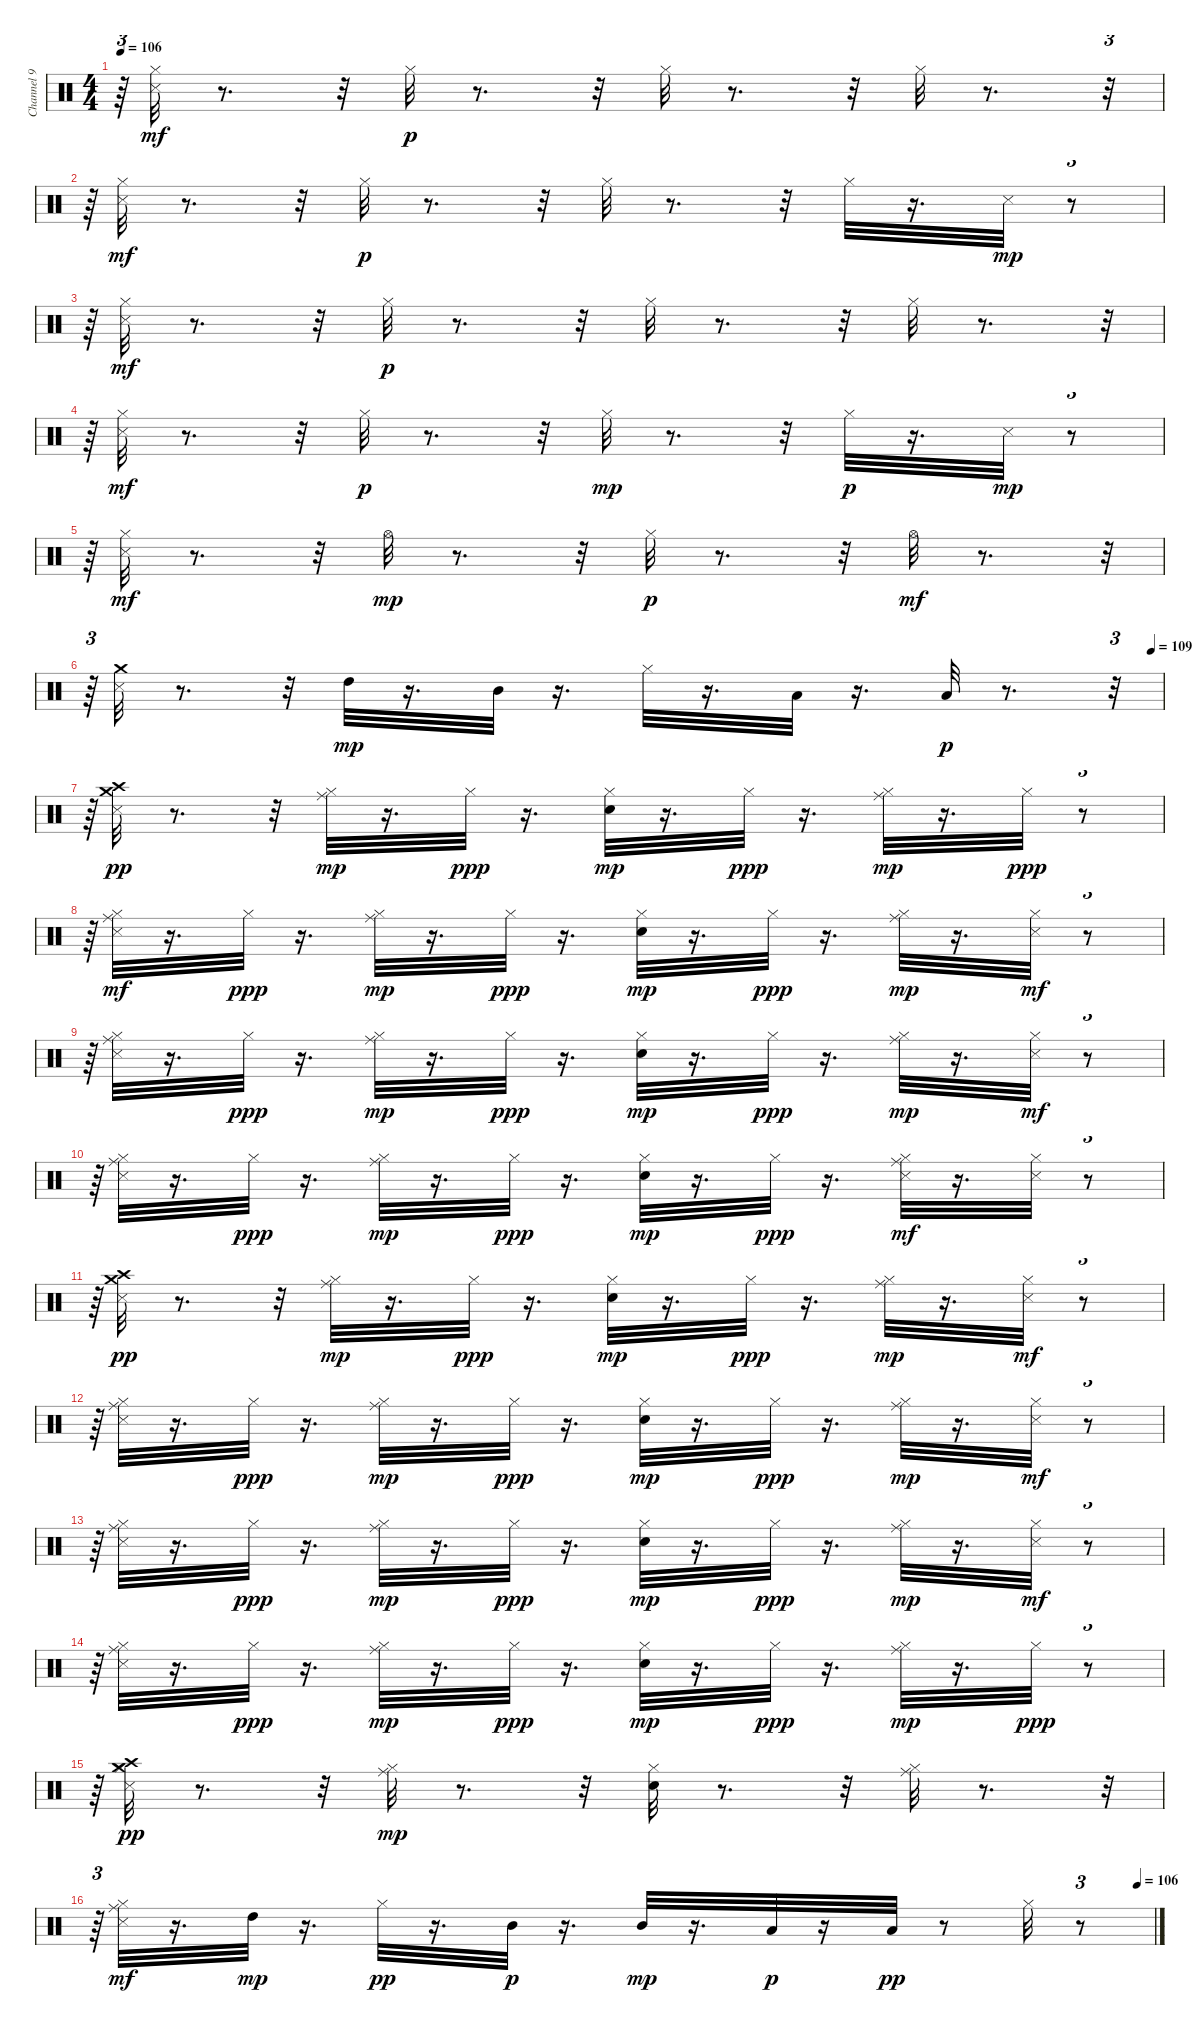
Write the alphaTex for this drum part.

\track ("Channel 9" "Channel 9") {instrument percussion}
\staff {score}
\articulation defaults
\ts (4 4)
\tempo 106
\clef neutral
\ks c
r.64{tu (3 2) dy pp} ("Hi-Hat (closed)" "Metronome (hit)").32{dy mf} r.8{d} r.32 "Hi-Hat (closed)".32{dy p} r.8{d} r.32 "Hi-Hat (closed)".32 r.8{d} r.32 "Hi-Hat (closed)".32 r.8{d} r.32{tu (3 2)} |
r.64{tu (3 2)} ("Hi-Hat (closed)" "Metronome (hit)").32{dy mf} r.8{d} r.32 "Hi-Hat (closed)".32{dy p} r.8{d} r.32 "Hi-Hat (closed)".32 r.8{d} r.32 "Hi-Hat (closed)".32 r.16{d} "Metronome (hit)".32{dy mp} r.8{tu (3 2)} |
r.64{tu (3 2)} ("Hi-Hat (closed)" "Metronome (hit)").32{dy mf} r.8{d} r.32 "Hi-Hat (closed)".32{dy p} r.8{d} r.32 "Hi-Hat (closed)".32 r.8{d} r.32 "Hi-Hat (closed)".32 r.8{d} r.32{tu (3 2)} |
r.64{tu (3 2)} ("Hi-Hat (closed)" "Metronome (hit)").32{dy mf} r.8{d} r.32 "Hi-Hat (closed)".32{dy p} r.8{d} r.32 "Hi-Hat (closed)".32{dy mp} r.8{d} r.32 "Hi-Hat (closed)".32{dy p} r.16{d} "Metronome (hit)".32{dy mp} r.8{tu (3 2)} |
r.64{tu (3 2)} ("Hi-Hat (closed)" "Metronome (hit)").32{dy mf} r.8{d} r.32 "Hi-Hat (open)".32{dy mp} r.8{d} r.32 "Hi-Hat (closed)".32{dy p} r.8{d} r.32 "Hi-Hat (open)".32{dy mf} r.8{d} r.32{tu (3 2)} |
\tempo (109 0.9895833333333334)
r.64{tu (3 2)} ("Crash medium (hit)" "Metronome (hit)").32 r.8{d} r.32 "High Tom (hit)".32{dy mp} r.16{d} "Mid Tom (hit)".32 r.16{d} "Hi-Hat (closed)".32 r.16{d} "Low Tom (hit)".32 r.16{d} "Low Tom (hit)".32{dy p} r.8{d} r.32{tu (3 2)} |
r.64{tu (3 2)} ("Crash medium (hit)" "Metronome (hit)" "Crash high (hit)").32{dy pp} r.8{d} r.32 ("Ride (middle)" "Hi-Hat (closed)").32{dy mp} r.16{d} "Hi-Hat (closed)".32{dy ppp} r.16{d} ("Hi-Hat (closed)" "Electric Snare (hit)").32{dy mp} r.16{d} "Hi-Hat (closed)".32{dy ppp} r.16{d} ("Ride (middle)" "Hi-Hat (closed)").32{dy mp} r.16{d} "Hi-Hat (closed)".32{dy ppp} r.8{tu (3 2)} |
r.64{tu (3 2)} ("Ride (middle)" "Hi-Hat (closed)" "Metronome (hit)").32{dy mf} r.16{d} "Hi-Hat (closed)".32{dy ppp} r.16{d} ("Ride (middle)" "Hi-Hat (closed)").32{dy mp} r.16{d} "Hi-Hat (closed)".32{dy ppp} r.16{d} ("Hi-Hat (closed)" "Electric Snare (hit)").32{dy mp} r.16{d} "Hi-Hat (closed)".32{dy ppp} r.16{d} ("Ride (middle)" "Hi-Hat (closed)").32{dy mp} r.16{d} ("Hi-Hat (closed)" "Metronome (hit)").32{dy mf} r.8{tu (3 2)} |
r.64{tu (3 2)} ("Ride (middle)" "Hi-Hat (closed)" "Metronome (hit)").32 r.16{d} "Hi-Hat (closed)".32{dy ppp} r.16{d} ("Ride (middle)" "Hi-Hat (closed)").32{dy mp} r.16{d} "Hi-Hat (closed)".32{dy ppp} r.16{d} ("Hi-Hat (closed)" "Electric Snare (hit)").32{dy mp} r.16{d} "Hi-Hat (closed)".32{dy ppp} r.16{d} ("Ride (middle)" "Hi-Hat (closed)").32{dy mp} r.16{d} ("Hi-Hat (closed)" "Metronome (hit)").32{dy mf} r.8{tu (3 2)} |
r.64{tu (3 2)} ("Ride (middle)" "Hi-Hat (closed)" "Metronome (hit)").32 r.16{d} "Hi-Hat (closed)".32{dy ppp} r.16{d} ("Ride (middle)" "Hi-Hat (closed)").32{dy mp} r.16{d} "Hi-Hat (closed)".32{dy ppp} r.16{d} ("Hi-Hat (closed)" "Electric Snare (hit)").32{dy mp} r.16{d} "Hi-Hat (closed)".32{dy ppp} r.16{d} ("Ride (middle)" "Hi-Hat (closed)" "Metronome (hit)").32{dy mf} r.16{d} ("Hi-Hat (closed)" "Metronome (hit)").32 r.8{tu (3 2)} |
r.64{tu (3 2)} ("Crash medium (hit)" "Metronome (hit)" "Crash high (hit)").32{dy pp} r.8{d} r.32 ("Ride (middle)" "Hi-Hat (closed)").32{dy mp} r.16{d} "Hi-Hat (closed)".32{dy ppp} r.16{d} ("Hi-Hat (closed)" "Electric Snare (hit)").32{dy mp} r.16{d} "Hi-Hat (closed)".32{dy ppp} r.16{d} ("Ride (middle)" "Hi-Hat (closed)").32{dy mp} r.16{d} ("Hi-Hat (closed)" "Metronome (hit)").32{dy mf} r.8{tu (3 2)} |
r.64{tu (3 2)} ("Ride (middle)" "Hi-Hat (closed)" "Metronome (hit)").32 r.16{d} "Hi-Hat (closed)".32{dy ppp} r.16{d} ("Ride (middle)" "Hi-Hat (closed)").32{dy mp} r.16{d} "Hi-Hat (closed)".32{dy ppp} r.16{d} ("Hi-Hat (closed)" "Electric Snare (hit)").32{dy mp} r.16{d} "Hi-Hat (closed)".32{dy ppp} r.16{d} ("Ride (middle)" "Hi-Hat (closed)").32{dy mp} r.16{d} ("Hi-Hat (closed)" "Metronome (hit)").32{dy mf} r.8{tu (3 2)} |
r.64{tu (3 2)} ("Ride (middle)" "Hi-Hat (closed)" "Metronome (hit)").32 r.16{d} "Hi-Hat (closed)".32{dy ppp} r.16{d} ("Ride (middle)" "Hi-Hat (closed)").32{dy mp} r.16{d} "Hi-Hat (closed)".32{dy ppp} r.16{d} ("Hi-Hat (closed)" "Electric Snare (hit)").32{dy mp} r.16{d} "Hi-Hat (closed)".32{dy ppp} r.16{d} ("Ride (middle)" "Hi-Hat (closed)").32{dy mp} r.16{d} ("Hi-Hat (closed)" "Metronome (hit)").32{dy mf} r.8{tu (3 2)} |
r.64{tu (3 2)} ("Ride (middle)" "Hi-Hat (closed)" "Metronome (hit)").32 r.16{d} "Hi-Hat (closed)".32{dy ppp} r.16{d} ("Ride (middle)" "Hi-Hat (closed)").32{dy mp} r.16{d} "Hi-Hat (closed)".32{dy ppp} r.16{d} ("Hi-Hat (closed)" "Electric Snare (hit)").32{dy mp} r.16{d} "Hi-Hat (closed)".32{dy ppp} r.16{d} ("Ride (middle)" "Hi-Hat (closed)").32{dy mp} r.16{d} "Hi-Hat (closed)".32{dy ppp} r.8{tu (3 2)} |
r.64{tu (3 2)} ("Crash medium (hit)" "Hi-Hat (closed)" "Metronome (hit)" "Crash high (hit)").32{dy pp} r.8{d} r.32 ("Ride (middle)" "Hi-Hat (closed)").32{dy mp} r.8{d} r.32 ("Hi-Hat (closed)" "Electric Snare (hit)").32 r.8{d} r.32 ("Ride (middle)" "Hi-Hat (closed)").32 r.8{d} r.32{tu (3 2)} |
\tempo (106 0.984375)
r.64{tu (3 2)} ("Ride (middle)" "Hi-Hat (closed)" "Metronome (hit)").32{dy mf} r.16{d} "High Tom (hit)".32{dy mp} r.16{d} "Hi-Hat (closed)".32{dy pp} r.16{d} "Mid Tom (hit)".32{dy p} r.16{d} "Mid Tom (hit)".32{dy mp} r.16{d} "Low Tom (hit)".32{dy p} r.16 "Low Tom (hit)".32{dy pp} r.8 "Hi-Hat (closed)".32 r.8{tu (3 2)}
